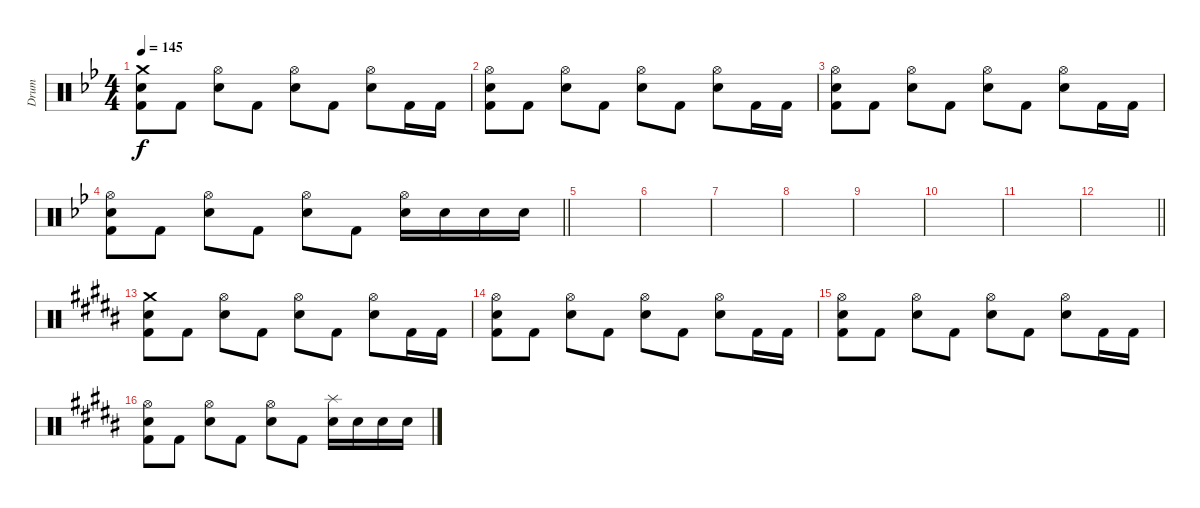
\track ("Drum" "Drum") {instrument percussion}
\staff {score}
\articulation defaults
\ts (4 4)
\tempo 145
\clef neutral
\ks bb
("Crash medium (hit)" "Snare (hit) 2" "Kick (hit) 2").8{dy f} "Kick (hit) 2".8 ("Hi-Hat (open)" "Snare (hit) 2").8 "Kick (hit) 2".8 ("Hi-Hat (open)" "Snare (hit) 2").8 "Kick (hit) 2".8 ("Hi-Hat (open)" "Snare (hit) 2").8 "Kick (hit) 2".16 "Kick (hit) 2".16 |
("Hi-Hat (open)" "Snare (hit) 2" "Kick (hit) 2").8 "Kick (hit) 2".8 ("Hi-Hat (open)" "Snare (hit) 2").8 "Kick (hit) 2".8 ("Hi-Hat (open)" "Snare (hit) 2").8 "Kick (hit) 2".8 ("Hi-Hat (open)" "Snare (hit) 2").8 "Kick (hit) 2".16 "Kick (hit) 2".16 |
("Hi-Hat (open)" "Snare (hit) 2" "Kick (hit) 2").8 "Kick (hit) 2".8 ("Hi-Hat (open)" "Snare (hit) 2").8 "Kick (hit) 2".8 ("Hi-Hat (open)" "Snare (hit) 2").8 "Kick (hit) 2".8 ("Hi-Hat (open)" "Snare (hit) 2").8 "Kick (hit) 2".16 "Kick (hit) 2".16 |
\barLineRight lightlight
("Hi-Hat (open)" "Snare (hit) 2" "Kick (hit) 2").8 "Kick (hit) 2".8 ("Hi-Hat (open)" "Snare (hit) 2").8 "Kick (hit) 2".8 ("Hi-Hat (open)" "Snare (hit) 2").8 "Kick (hit) 2".8 ("Hi-Hat (open)" "Snare (hit) 2").16 "Snare (hit) 2".16 "Snare (hit) 2".16 "Snare (hit) 2".16 |
|
|
|
|
|
|
|
\barLineRight lightlight
|
\ks b
("Crash medium (hit)" "Snare (hit) 2" "Kick (hit) 2").8 "Kick (hit) 2".8 ("Hi-Hat (open)" "Snare (hit) 2").8 "Kick (hit) 2".8 ("Hi-Hat (open)" "Snare (hit) 2").8 "Kick (hit) 2".8 ("Hi-Hat (open)" "Snare (hit) 2").8 "Kick (hit) 2".16 "Kick (hit) 2".16 |
("Hi-Hat (open)" "Snare (hit) 2" "Kick (hit) 2").8 "Kick (hit) 2".8 ("Hi-Hat (open)" "Snare (hit) 2").8 "Kick (hit) 2".8 ("Hi-Hat (open)" "Snare (hit) 2").8 "Kick (hit) 2".8 ("Hi-Hat (open)" "Snare (hit) 2").8 "Kick (hit) 2".16 "Kick (hit) 2".16 |
("Hi-Hat (open)" "Snare (hit) 2" "Kick (hit) 2").8 "Kick (hit) 2".8 ("Hi-Hat (open)" "Snare (hit) 2").8 "Kick (hit) 2".8 ("Hi-Hat (open)" "Snare (hit) 2").8 "Kick (hit) 2".8 ("Hi-Hat (open)" "Snare (hit) 2").8 "Kick (hit) 2".16 "Kick (hit) 2".16 |
("Hi-Hat (open)" "Snare (hit) 2" "Kick (hit) 2").8 "Kick (hit) 2".8 ("Hi-Hat (open)" "Snare (hit) 2").8 "Kick (hit) 2".8 ("Hi-Hat (open)" "Snare (hit) 2").8 "Kick (hit) 2".8 ("Splash (hit)" "Snare (hit) 2").16 "Snare (hit) 2".16 "Snare (hit) 2".16 "Snare (hit) 2".16
